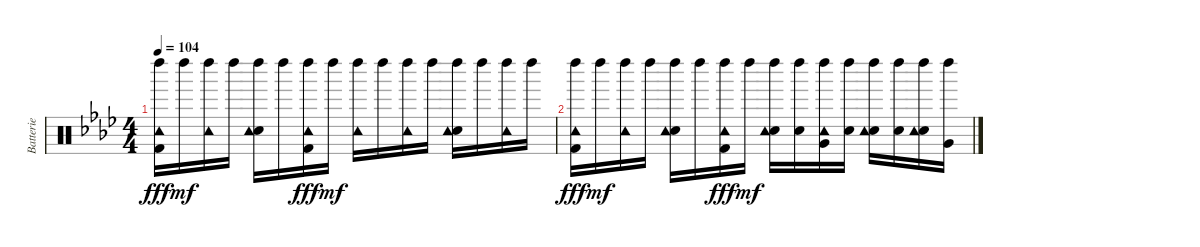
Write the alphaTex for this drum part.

\track ("Batterie" "Batterie") {instrument percussion}
\staff {score}
\articulation defaults
\ts (4 4)
\tempo 104
\clef neutral
\ks ab
("Left Maraca (hit)" "Tambourine (hit)" "Kick (hit) 2").16{dy fff} "Left Maraca (hit)".16{dy mf} ("Left Maraca (hit)" "Tambourine (hit)").16 "Left Maraca (hit)".16 ("Left Maraca (hit)" "Electric Snare (hit)" "Tambourine (hit)").16 "Left Maraca (hit)".16 ("Left Maraca (hit)" "Tambourine (hit)" "Kick (hit) 2").16{dy fff} "Left Maraca (hit)".16{dy mf} ("Left Maraca (hit)" "Tambourine (hit)").16 "Left Maraca (hit)".16 ("Left Maraca (hit)" "Tambourine (hit)").16 "Left Maraca (hit)".16 ("Left Maraca (hit)" "Electric Snare (hit)" "Tambourine (hit)").16 "Left Maraca (hit)".16 ("Left Maraca (hit)" "Tambourine (hit)").16 "Left Maraca (hit)".16 |
("Left Maraca (hit)" "Tambourine (hit)" "Kick (hit) 2").16{dy fff} "Left Maraca (hit)".16{dy mf} ("Left Maraca (hit)" "Tambourine (hit)").16 "Left Maraca (hit)".16 ("Left Maraca (hit)" "Electric Snare (hit)" "Tambourine (hit)").16 "Left Maraca (hit)".16 ("Left Maraca (hit)" "Tambourine (hit)" "Kick (hit) 2").16{dy fff} "Left Maraca (hit)".16{dy mf} ("Left Maraca (hit)" "Electric Snare (hit)" "Tambourine (hit)").16 ("Left Maraca (hit)" "Electric Snare (hit)").16 ("Left Maraca (hit)" "Tambourine (hit)" "Very Low Tom (hit)").16 ("Left Maraca (hit)" "Electric Snare (hit)").16 ("Left Maraca (hit)" "Electric Snare (hit)" "Tambourine (hit)").16 ("Left Maraca (hit)" "Electric Snare (hit)").16 ("Left Maraca (hit)" "Electric Snare (hit)" "Tambourine (hit)").16 ("Left Maraca (hit)" "Very Low Tom (hit)").16
